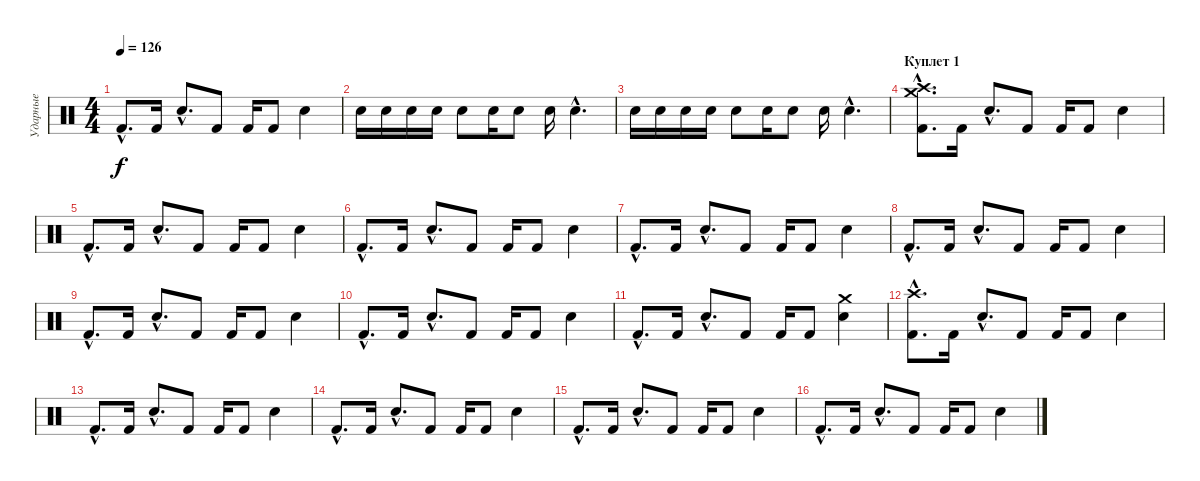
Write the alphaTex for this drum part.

\track ("Ударные" "Ударные") {instrument percussion}
\staff {score}
\articulation defaults
\ts (4 4)
\tempo 126
\clef neutral
\ks c "Kick (hit) 2"{hac}.8{d dy f} "Kick (hit) 2".16 "Snare (hit) 2"{hac}.8{d} "Kick (hit) 2".8 "Kick (hit) 2".16 "Kick (hit) 2".8 "Snare (hit) 2".4
|
"Snare (hit) 2".16 "Snare (hit) 2".16 "Snare (hit) 2".16 "Snare (hit) 2".16 "Snare (hit) 2".8 "Snare (hit) 2".16 "Snare (hit) 2".8 "Snare (hit) 2".16 "Snare (hit) 2"{hac}.4{d} |
"Snare (hit) 2".16 "Snare (hit) 2".16 "Snare (hit) 2".16 "Snare (hit) 2".16 "Snare (hit) 2".8 "Snare (hit) 2".16 "Snare (hit) 2".8 "Snare (hit) 2".16 "Snare (hit) 2"{hac}.4{d} |
\section ("" "Куплет 1")
("Kick (hit) 2"{hac} "Crash high (hit)"{hac} "Crash medium (hit)"{hac}).8{d} "Kick (hit) 2".16 "Snare (hit) 2"{hac}.8{d} "Kick (hit) 2".8 "Kick (hit) 2".16 "Kick (hit) 2".8 "Snare (hit) 2".4 |
"Kick (hit) 2"{hac}.8{d} "Kick (hit) 2".16 "Snare (hit) 2"{hac}.8{d} "Kick (hit) 2".8 "Kick (hit) 2".16 "Kick (hit) 2".8 "Snare (hit) 2".4 |
"Kick (hit) 2"{hac}.8{d} "Kick (hit) 2".16 "Snare (hit) 2"{hac}.8{d} "Kick (hit) 2".8 "Kick (hit) 2".16 "Kick (hit) 2".8 "Snare (hit) 2".4 |
"Kick (hit) 2"{hac}.8{d} "Kick (hit) 2".16 "Snare (hit) 2"{hac}.8{d} "Kick (hit) 2".8 "Kick (hit) 2".16 "Kick (hit) 2".8 "Snare (hit) 2".4 |
"Kick (hit) 2"{hac}.8{d} "Kick (hit) 2".16 "Snare (hit) 2"{hac}.8{d} "Kick (hit) 2".8 "Kick (hit) 2".16 "Kick (hit) 2".8 "Snare (hit) 2".4 |
"Kick (hit) 2"{hac}.8{d} "Kick (hit) 2".16 "Snare (hit) 2"{hac}.8{d} "Kick (hit) 2".8 "Kick (hit) 2".16 "Kick (hit) 2".8 "Snare (hit) 2".4 |
"Kick (hit) 2"{hac}.8{d} "Kick (hit) 2".16 "Snare (hit) 2"{hac}.8{d} "Kick (hit) 2".8 "Kick (hit) 2".16 "Kick (hit) 2".8 "Snare (hit) 2".4 |
"Kick (hit) 2"{hac}.8{d} "Kick (hit) 2".16 "Snare (hit) 2"{hac}.8{d} "Kick (hit) 2".8 "Kick (hit) 2".16 "Kick (hit) 2".8 ("Snare (hit) 2" "Crash medium (hit)").4 |
("Kick (hit) 2"{hac} "Crash high (hit)"{hac}).8{d} "Kick (hit) 2".16 "Snare (hit) 2"{hac}.8{d} "Kick (hit) 2".8 "Kick (hit) 2".16 "Kick (hit) 2".8 "Snare (hit) 2".4 |
"Kick (hit) 2"{hac}.8{d} "Kick (hit) 2".16 "Snare (hit) 2"{hac}.8{d} "Kick (hit) 2".8 "Kick (hit) 2".16 "Kick (hit) 2".8 "Snare (hit) 2".4 |
"Kick (hit) 2"{hac}.8{d} "Kick (hit) 2".16 "Snare (hit) 2"{hac}.8{d} "Kick (hit) 2".8 "Kick (hit) 2".16 "Kick (hit) 2".8 "Snare (hit) 2".4 |
"Kick (hit) 2"{hac}.8{d} "Kick (hit) 2".16 "Snare (hit) 2"{hac}.8{d} "Kick (hit) 2".8 "Kick (hit) 2".16 "Kick (hit) 2".8 "Snare (hit) 2".4 |
"Kick (hit) 2"{hac}.8{d} "Kick (hit) 2".16 "Snare (hit) 2"{hac}.8{d} "Kick (hit) 2".8 "Kick (hit) 2".16 "Kick (hit) 2".8 "Snare (hit) 2".4
